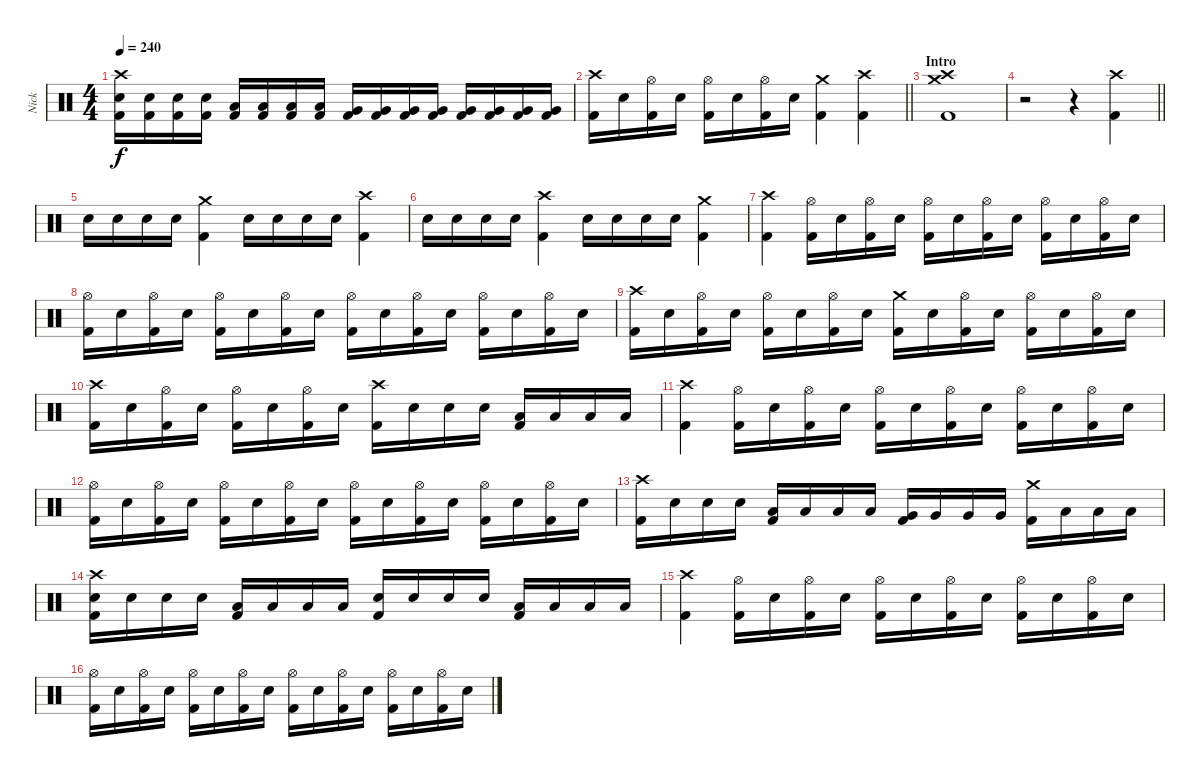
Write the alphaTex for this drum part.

\track ("Nick" "Nick") {instrument percussion}
\staff {score}
\articulation defaults
\ts (4 4)
\tempo 240
\clef neutral
\ks c
("Crash high (hit)" "Electric Snare (hit)" "Kick (hit) 2").16{dy f} ("Electric Snare (hit)" "Kick (hit) 2").16 ("Electric Snare (hit)" "Kick (hit) 2").16 ("Electric Snare (hit)" "Kick (hit) 2").16 ("Low Tom (hit)" "Kick (hit) 2").16 ("Low Tom (hit)" "Kick (hit) 2").16 ("Low Tom (hit)" "Kick (hit) 2").16 ("Low Tom (hit)" "Kick (hit) 2").16 ("Very Low Tom (hit)" "Kick (hit) 2").16 ("Very Low Tom (hit)" "Kick (hit) 2").16 ("Very Low Tom (hit)" "Kick (hit) 2").16 ("Very Low Tom (hit)" "Kick (hit) 2").16 ("Very Low Tom (hit)" "Kick (hit) 2").16 ("Very Low Tom (hit)" "Kick (hit) 2").16 ("Very Low Tom (hit)" "Kick (hit) 2").16 ("Very Low Tom (hit)" "Kick (hit) 2").16 |
\barLineRight lightlight
("Crash high (hit)" "Kick (hit) 2").16 "Electric Snare (hit)".16 ("Hi-Hat (open)" "Kick (hit) 2").16 "Electric Snare (hit)".16 ("Hi-Hat (open)" "Kick (hit) 2").16 "Electric Snare (hit)".16 ("Hi-Hat (open)" "Kick (hit) 2").16 "Electric Snare (hit)".16 ("Crash medium (hit)" "Kick (hit) 2").4 ("Crash high (hit)" "Kick (hit) 2").4 |
\section ("" "Intro")
("Crash high (hit)" "Crash medium (hit)" "Kick (hit) 2").1 |
\barLineRight lightlight
r.2 r.4 ("Crash high (hit)" "Kick (hit) 2").4 |
"Electric Snare (hit)".16 "Electric Snare (hit)".16 "Electric Snare (hit)".16 "Electric Snare (hit)".16 ("Crash medium (hit)" "Kick (hit) 2").4 "Electric Snare (hit)".16 "Electric Snare (hit)".16 "Electric Snare (hit)".16 "Electric Snare (hit)".16 ("Crash high (hit)" "Kick (hit) 2").4 |
"Electric Snare (hit)".16 "Electric Snare (hit)".16 "Electric Snare (hit)".16 "Electric Snare (hit)".16 ("Crash high (hit)" "Kick (hit) 2").4 "Electric Snare (hit)".16 "Electric Snare (hit)".16 "Electric Snare (hit)".16 "Electric Snare (hit)".16 ("Crash medium (hit)" "Kick (hit) 2").4 |
("Crash high (hit)" "Kick (hit) 2").4 ("Hi-Hat (open)" "Kick (hit) 2").16 "Electric Snare (hit)".16 ("Hi-Hat (open)" "Kick (hit) 2").16 "Electric Snare (hit)".16 ("Hi-Hat (open)" "Kick (hit) 2").16 "Electric Snare (hit)".16 ("Hi-Hat (open)" "Kick (hit) 2").16 "Electric Snare (hit)".16 ("Hi-Hat (open)" "Kick (hit) 2").16 "Electric Snare (hit)".16 ("Hi-Hat (open)" "Kick (hit) 2").16 "Electric Snare (hit)".16 |
("Hi-Hat (open)" "Kick (hit) 2").16 "Electric Snare (hit)".16 ("Hi-Hat (open)" "Kick (hit) 2").16 "Electric Snare (hit)".16 ("Hi-Hat (open)" "Kick (hit) 2").16 "Electric Snare (hit)".16 ("Hi-Hat (open)" "Kick (hit) 2").16 "Electric Snare (hit)".16 ("Hi-Hat (open)" "Kick (hit) 2").16 "Electric Snare (hit)".16 ("Hi-Hat (open)" "Kick (hit) 2").16 "Electric Snare (hit)".16 ("Hi-Hat (open)" "Kick (hit) 2").16 "Electric Snare (hit)".16 ("Hi-Hat (open)" "Kick (hit) 2").16 "Electric Snare (hit)".16 |
("Crash high (hit)" "Kick (hit) 2").16 "Electric Snare (hit)".16 ("Hi-Hat (open)" "Kick (hit) 2").16 "Electric Snare (hit)".16 ("Hi-Hat (open)" "Kick (hit) 2").16 "Electric Snare (hit)".16 ("Hi-Hat (open)" "Kick (hit) 2").16 "Electric Snare (hit)".16 ("Crash medium (hit)" "Kick (hit) 2").16 "Electric Snare (hit)".16 ("Hi-Hat (open)" "Kick (hit) 2").16 "Electric Snare (hit)".16 ("Hi-Hat (open)" "Kick (hit) 2").16 "Electric Snare (hit)".16 ("Hi-Hat (open)" "Kick (hit) 2").16 "Electric Snare (hit)".16 |
("Crash high (hit)" "Kick (hit) 2").16 "Electric Snare (hit)".16 ("Hi-Hat (open)" "Kick (hit) 2").16 "Electric Snare (hit)".16 ("Hi-Hat (open)" "Kick (hit) 2").16 "Electric Snare (hit)".16 ("Hi-Hat (open)" "Kick (hit) 2").16 "Electric Snare (hit)".16 ("Crash high (hit)" "Kick (hit) 2").16 "Electric Snare (hit)".16 "Electric Snare (hit)".16 "Electric Snare (hit)".16 ("Low Tom (hit)" "Kick (hit) 2").16 "Low Tom (hit)".16 "Low Tom (hit)".16 "Low Tom (hit)".16 |
("Crash high (hit)" "Kick (hit) 2").4 ("Hi-Hat (open)" "Kick (hit) 2").16 "Electric Snare (hit)".16 ("Hi-Hat (open)" "Kick (hit) 2").16 "Electric Snare (hit)".16 ("Hi-Hat (open)" "Kick (hit) 2").16 "Electric Snare (hit)".16 ("Hi-Hat (open)" "Kick (hit) 2").16 "Electric Snare (hit)".16 ("Hi-Hat (open)" "Kick (hit) 2").16 "Electric Snare (hit)".16 ("Hi-Hat (open)" "Kick (hit) 2").16 "Electric Snare (hit)".16 |
("Hi-Hat (open)" "Kick (hit) 2").16 "Electric Snare (hit)".16 ("Hi-Hat (open)" "Kick (hit) 2").16 "Electric Snare (hit)".16 ("Hi-Hat (open)" "Kick (hit) 2").16 "Electric Snare (hit)".16 ("Hi-Hat (open)" "Kick (hit) 2").16 "Electric Snare (hit)".16 ("Hi-Hat (open)" "Kick (hit) 2").16 "Electric Snare (hit)".16 ("Hi-Hat (open)" "Kick (hit) 2").16 "Electric Snare (hit)".16 ("Hi-Hat (open)" "Kick (hit) 2").16 "Electric Snare (hit)".16 ("Hi-Hat (open)" "Kick (hit) 2").16 "Electric Snare (hit)".16 |
("Crash high (hit)" "Kick (hit) 2").16 "Electric Snare (hit)".16 "Electric Snare (hit)".16 "Electric Snare (hit)".16 ("Low Tom (hit)" "Kick (hit) 2").16 "Low Tom (hit)".16 "Low Tom (hit)".16 "Low Tom (hit)".16 ("Very Low Tom (hit)" "Kick (hit) 2").16 "Very Low Tom (hit)".16 "Very Low Tom (hit)".16 "Very Low Tom (hit)".16 ("Crash medium (hit)" "Kick (hit) 2").16 "Low Floor Tom (hit)".16 "Low Floor Tom (hit)".16 "Low Floor Tom (hit)".16 |
("Crash high (hit)" "Electric Snare (hit)" "Kick (hit) 2").16 "Electric Snare (hit)".16 "Electric Snare (hit)".16 "Electric Snare (hit)".16 ("Low Tom (hit)" "Kick (hit) 2").16 "Low Tom (hit)".16 "Low Tom (hit)".16 "Low Tom (hit)".16 ("Electric Snare (hit)" "Kick (hit) 2").16 "Electric Snare (hit)".16 "Electric Snare (hit)".16 "Electric Snare (hit)".16 ("Low Tom (hit)" "Kick (hit) 2").16 "Low Tom (hit)".16 "Low Tom (hit)".16 "Low Tom (hit)".16 |
("Crash high (hit)" "Kick (hit) 2").4 ("Hi-Hat (open)" "Kick (hit) 2").16 "Electric Snare (hit)".16 ("Hi-Hat (open)" "Kick (hit) 2").16 "Electric Snare (hit)".16 ("Hi-Hat (open)" "Kick (hit) 2").16 "Electric Snare (hit)".16 ("Hi-Hat (open)" "Kick (hit) 2").16 "Electric Snare (hit)".16 ("Hi-Hat (open)" "Kick (hit) 2").16 "Electric Snare (hit)".16 ("Hi-Hat (open)" "Kick (hit) 2").16 "Electric Snare (hit)".16 |
("Hi-Hat (open)" "Kick (hit) 2").16 "Electric Snare (hit)".16 ("Hi-Hat (open)" "Kick (hit) 2").16 "Electric Snare (hit)".16 ("Hi-Hat (open)" "Kick (hit) 2").16 "Electric Snare (hit)".16 ("Hi-Hat (open)" "Kick (hit) 2").16 "Electric Snare (hit)".16 ("Hi-Hat (open)" "Kick (hit) 2").16 "Electric Snare (hit)".16 ("Hi-Hat (open)" "Kick (hit) 2").16 "Electric Snare (hit)".16 ("Hi-Hat (open)" "Kick (hit) 2").16 "Electric Snare (hit)".16 ("Hi-Hat (open)" "Kick (hit) 2").16 "Electric Snare (hit)".16
